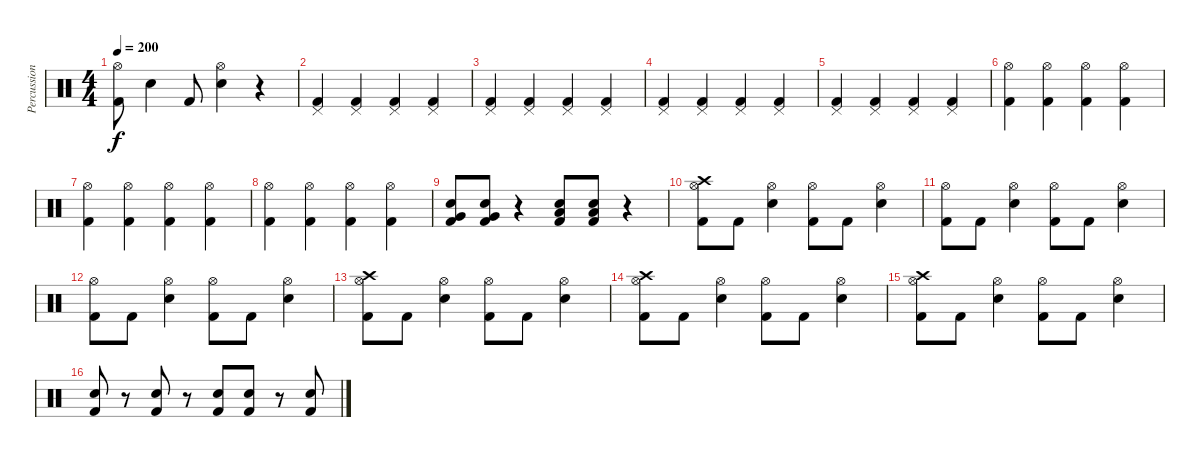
\track ("Percussion" "Percussion") {instrument percussion}
\staff {score}
\articulation defaults
\ts (4 4)
\tempo 200
\clef neutral
\ks c
("Hi-Hat (open)" "Kick (hit) 2").8{dy f} "Electric Snare (hit)".4 "Kick (hit) 2".8 ("Hi-Hat (open)" "Electric Snare (hit)").4 r.4 |
("Pedal Hi-Hat (hit)" "Kick (hit) 2").4 ("Pedal Hi-Hat (hit)" "Kick (hit) 2").4 ("Pedal Hi-Hat (hit)" "Kick (hit) 2").4 ("Pedal Hi-Hat (hit)" "Kick (hit) 2").4 |
("Pedal Hi-Hat (hit)" "Kick (hit) 2").4 ("Pedal Hi-Hat (hit)" "Kick (hit) 2").4 ("Pedal Hi-Hat (hit)" "Kick (hit) 2").4 ("Pedal Hi-Hat (hit)" "Kick (hit) 2").4 |
("Pedal Hi-Hat (hit)" "Kick (hit) 2").4 ("Pedal Hi-Hat (hit)" "Kick (hit) 2").4 ("Pedal Hi-Hat (hit)" "Kick (hit) 2").4 ("Pedal Hi-Hat (hit)" "Kick (hit) 2").4 |
("Pedal Hi-Hat (hit)" "Kick (hit) 2").4 ("Pedal Hi-Hat (hit)" "Kick (hit) 2").4 ("Pedal Hi-Hat (hit)" "Kick (hit) 2").4 ("Pedal Hi-Hat (hit)" "Kick (hit) 2").4 |
("Hi-Hat (open)" "Kick (hit) 2").4 ("Hi-Hat (open)" "Kick (hit) 2").4 ("Hi-Hat (open)" "Kick (hit) 2").4 ("Hi-Hat (open)" "Kick (hit) 2").4 |
("Hi-Hat (open)" "Kick (hit) 2").4 ("Hi-Hat (open)" "Kick (hit) 2").4 ("Hi-Hat (open)" "Kick (hit) 2").4 ("Hi-Hat (open)" "Kick (hit) 2").4 |
("Hi-Hat (open)" "Kick (hit) 2").4 ("Hi-Hat (open)" "Kick (hit) 2").4 ("Hi-Hat (open)" "Kick (hit) 2").4 ("Hi-Hat (open)" "Kick (hit) 2").4 |
("Very Low Tom (hit)" "Electric Snare (hit)" "Kick (hit) 2").8 ("Very Low Tom (hit)" "Electric Snare (hit)" "Kick (hit) 2").8 r.4 ("Low Tom (hit)" "Electric Snare (hit)" "Kick (hit) 2").8 ("Low Tom (hit)" "Electric Snare (hit)" "Kick (hit) 2").8 r.4 |
("Hi-Hat (open)" "Crash high (hit)" "Kick (hit) 2").8 "Kick (hit) 2".8 ("Hi-Hat (open)" "Electric Snare (hit)").4 ("Hi-Hat (open)" "Kick (hit) 2").8 "Kick (hit) 2".8 ("Hi-Hat (open)" "Electric Snare (hit)").4 |
("Hi-Hat (open)" "Kick (hit) 2").8 "Kick (hit) 2".8 ("Hi-Hat (open)" "Electric Snare (hit)").4 ("Hi-Hat (open)" "Kick (hit) 2").8 "Kick (hit) 2".8 ("Hi-Hat (open)" "Electric Snare (hit)").4 |
("Hi-Hat (open)" "Kick (hit) 2").8 "Kick (hit) 2".8 ("Hi-Hat (open)" "Electric Snare (hit)").4 ("Hi-Hat (open)" "Kick (hit) 2").8 "Kick (hit) 2".8 ("Hi-Hat (open)" "Electric Snare (hit)").4 |
("Hi-Hat (open)" "Crash high (hit)" "Kick (hit) 2").8 "Kick (hit) 2".8 ("Hi-Hat (open)" "Electric Snare (hit)").4 ("Hi-Hat (open)" "Kick (hit) 2").8 "Kick (hit) 2".8 ("Hi-Hat (open)" "Electric Snare (hit)").4 |
("Hi-Hat (open)" "Crash high (hit)" "Kick (hit) 2").8 "Kick (hit) 2".8 ("Hi-Hat (open)" "Electric Snare (hit)").4 ("Hi-Hat (open)" "Kick (hit) 2").8 "Kick (hit) 2".8 ("Hi-Hat (open)" "Electric Snare (hit)").4 |
("Hi-Hat (open)" "Crash high (hit)" "Kick (hit) 2").8 "Kick (hit) 2".8 ("Hi-Hat (open)" "Electric Snare (hit)").4 ("Hi-Hat (open)" "Kick (hit) 2").8 "Kick (hit) 2".8 ("Hi-Hat (open)" "Electric Snare (hit)").4 |
("Electric Snare (hit)" "Kick (hit) 2").8 r.8 ("Electric Snare (hit)" "Kick (hit) 2").8 r.8 ("Electric Snare (hit)" "Kick (hit) 2").8 ("Electric Snare (hit)" "Kick (hit) 2").8 r.8 ("Electric Snare (hit)" "Kick (hit) 2").8
